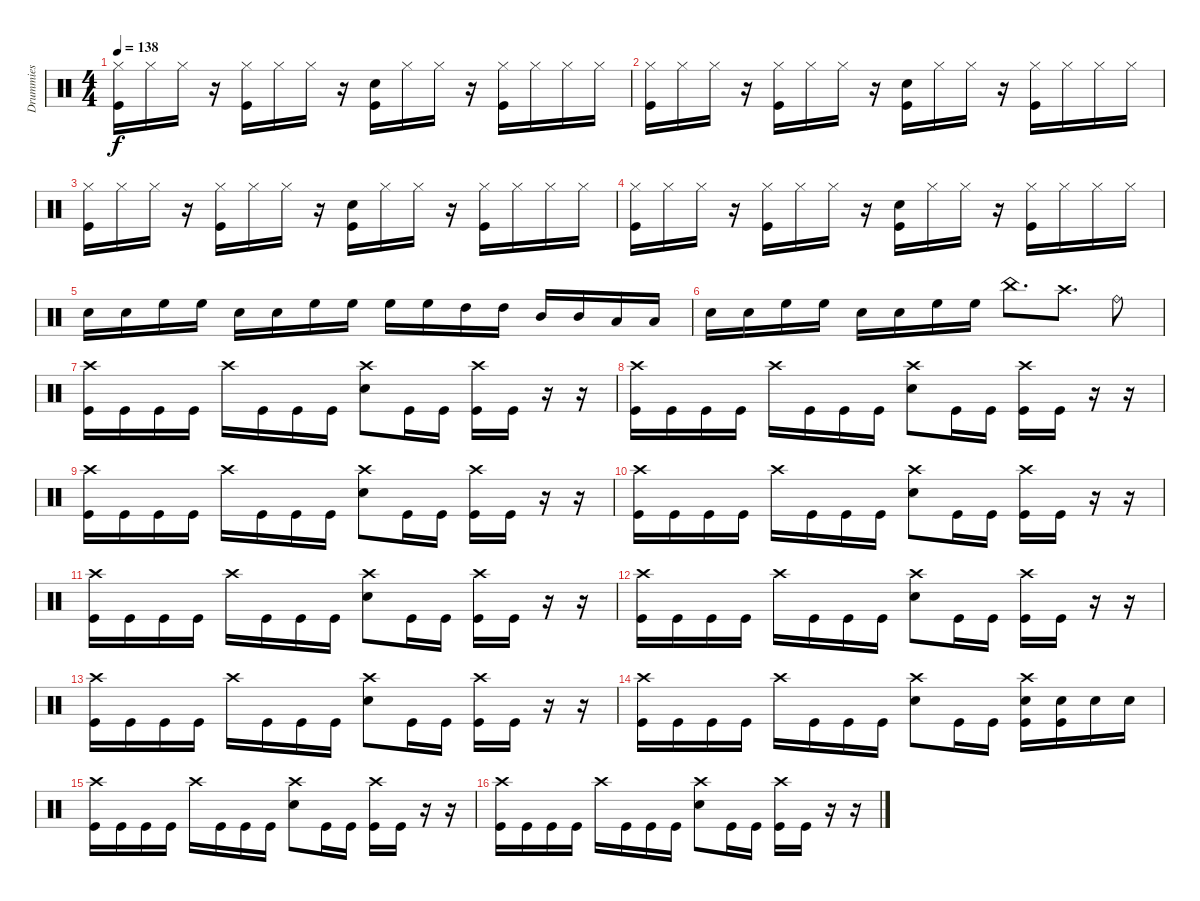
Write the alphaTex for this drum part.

\track ("Drummies" "Drummies") {instrument percussion}
\staff {score}
\articulation defaults
\ts (4 4)
\tempo 138
\clef neutral
\ks c
("Hi-Hat (closed)" "Kick (hit)").16{dy f} "Hi-Hat (closed)".16 "Hi-Hat (closed)".16 r.16 ("Hi-Hat (closed)" "Kick (hit)").16 "Hi-Hat (closed)".16 "Hi-Hat (closed)".16 r.16 ("Electric Snare (hit)" "Kick (hit)").16 "Hi-Hat (closed)".16 "Hi-Hat (closed)".16 r.16 ("Hi-Hat (closed)" "Kick (hit)").16 "Hi-Hat (closed)".16 "Hi-Hat (closed)".16 "Hi-Hat (closed)".16 |
("Hi-Hat (closed)" "Kick (hit)").16 "Hi-Hat (closed)".16 "Hi-Hat (closed)".16 r.16 ("Hi-Hat (closed)" "Kick (hit)").16 "Hi-Hat (closed)".16 "Hi-Hat (closed)".16 r.16 ("Electric Snare (hit)" "Kick (hit)").16 "Hi-Hat (closed)".16 "Hi-Hat (closed)".16 r.16 ("Hi-Hat (closed)" "Kick (hit)").16 "Hi-Hat (closed)".16 "Hi-Hat (closed)".16 "Hi-Hat (closed)".16 |
("Hi-Hat (closed)" "Kick (hit)").16 "Hi-Hat (closed)".16 "Hi-Hat (closed)".16 r.16 ("Hi-Hat (closed)" "Kick (hit)").16 "Hi-Hat (closed)".16 "Hi-Hat (closed)".16 r.16 ("Electric Snare (hit)" "Kick (hit)").16 "Hi-Hat (closed)".16 "Hi-Hat (closed)".16 r.16 ("Hi-Hat (closed)" "Kick (hit)").16 "Hi-Hat (closed)".16 "Hi-Hat (closed)".16 "Hi-Hat (closed)".16 |
("Hi-Hat (closed)" "Kick (hit)").16 "Hi-Hat (closed)".16 "Hi-Hat (closed)".16 r.16 ("Hi-Hat (closed)" "Kick (hit)").16 "Hi-Hat (closed)".16 "Hi-Hat (closed)".16 r.16 ("Electric Snare (hit)" "Kick (hit)").16 "Hi-Hat (closed)".16 "Hi-Hat (closed)".16 r.16 ("Hi-Hat (closed)" "Kick (hit)").16 "Hi-Hat (closed)".16 "Hi-Hat (closed)".16 "Hi-Hat (closed)".16 |
"Electric Snare (hit)".16 "Electric Snare (hit)".16 "High Floor Tom (hit)".16 "High Floor Tom (hit)".16 "Electric Snare (hit)".16 "Electric Snare (hit)".16 "High Floor Tom (hit)".16 "High Floor Tom (hit)".16 "High Floor Tom (hit)".16 "High Floor Tom (hit)".16 "High Tom (hit)".16 "High Tom (hit)".16 "Mid Tom (hit)".16 "Mid Tom (hit)".16 "Low Tom (hit)".16 "Low Tom (hit)".16 |
"Electric Snare (hit)".16 "Electric Snare (hit)".16 "High Floor Tom (hit)".16 "High Floor Tom (hit)".16 "Electric Snare (hit)".16 "Electric Snare (hit)".16 "High Floor Tom (hit)".16 "High Floor Tom (hit)".16 "China (hit)".8{d} "Crash high (hit)".8{d} "Ride (bell)".8 |
("Crash high (hit)" "Kick (hit)").16 "Kick (hit)".16 "Kick (hit)".16 "Kick (hit)".16 "Crash high (hit)".16 "Kick (hit)".16 "Kick (hit)".16 "Kick (hit)".16 ("Crash high (hit)" "Electric Snare (hit)").8 "Kick (hit)".16 "Kick (hit)".16 ("Crash high (hit)" "Kick (hit)").16 "Kick (hit)".16 r.16 r.16 |
("Crash high (hit)" "Kick (hit)").16 "Kick (hit)".16 "Kick (hit)".16 "Kick (hit)".16 "Crash high (hit)".16 "Kick (hit)".16 "Kick (hit)".16 "Kick (hit)".16 ("Crash high (hit)" "Electric Snare (hit)").8 "Kick (hit)".16 "Kick (hit)".16 ("Crash high (hit)" "Kick (hit)").16 "Kick (hit)".16 r.16 r.16 |
("Crash high (hit)" "Kick (hit)").16 "Kick (hit)".16 "Kick (hit)".16 "Kick (hit)".16 "Crash high (hit)".16 "Kick (hit)".16 "Kick (hit)".16 "Kick (hit)".16 ("Crash high (hit)" "Electric Snare (hit)").8 "Kick (hit)".16 "Kick (hit)".16 ("Crash high (hit)" "Kick (hit)").16 "Kick (hit)".16 r.16 r.16 |
("Crash high (hit)" "Kick (hit)").16 "Kick (hit)".16 "Kick (hit)".16 "Kick (hit)".16 "Crash high (hit)".16 "Kick (hit)".16 "Kick (hit)".16 "Kick (hit)".16 ("Crash high (hit)" "Electric Snare (hit)").8 "Kick (hit)".16 "Kick (hit)".16 ("Crash high (hit)" "Kick (hit)").16 "Kick (hit)".16 r.16 r.16 |
("Crash high (hit)" "Kick (hit)").16 "Kick (hit)".16 "Kick (hit)".16 "Kick (hit)".16 "Crash high (hit)".16 "Kick (hit)".16 "Kick (hit)".16 "Kick (hit)".16 ("Crash high (hit)" "Electric Snare (hit)").8 "Kick (hit)".16 "Kick (hit)".16 ("Crash high (hit)" "Kick (hit)").16 "Kick (hit)".16 r.16 r.16 |
("Crash high (hit)" "Kick (hit)").16 "Kick (hit)".16 "Kick (hit)".16 "Kick (hit)".16 "Crash high (hit)".16 "Kick (hit)".16 "Kick (hit)".16 "Kick (hit)".16 ("Crash high (hit)" "Electric Snare (hit)").8 "Kick (hit)".16 "Kick (hit)".16 ("Crash high (hit)" "Kick (hit)").16 "Kick (hit)".16 r.16 r.16 |
("Crash high (hit)" "Kick (hit)").16 "Kick (hit)".16 "Kick (hit)".16 "Kick (hit)".16 "Crash high (hit)".16 "Kick (hit)".16 "Kick (hit)".16 "Kick (hit)".16 ("Crash high (hit)" "Electric Snare (hit)").8 "Kick (hit)".16 "Kick (hit)".16 ("Crash high (hit)" "Kick (hit)").16 "Kick (hit)".16 r.16 r.16 |
("Crash high (hit)" "Kick (hit)").16 "Kick (hit)".16 "Kick (hit)".16 "Kick (hit)".16 "Crash high (hit)".16 "Kick (hit)".16 "Kick (hit)".16 "Kick (hit)".16 ("Crash high (hit)" "Electric Snare (hit)").8 "Kick (hit)".16 "Kick (hit)".16 ("Crash high (hit)" "Electric Snare (hit)" "Kick (hit)").16 ("Electric Snare (hit)" "Kick (hit)").16 "Electric Snare (hit)".16 "Electric Snare (hit)".16 |
("Crash high (hit)" "Kick (hit)").16 "Kick (hit)".16 "Kick (hit)".16 "Kick (hit)".16 "Crash high (hit)".16 "Kick (hit)".16 "Kick (hit)".16 "Kick (hit)".16 ("Crash high (hit)" "Electric Snare (hit)").8 "Kick (hit)".16 "Kick (hit)".16 ("Crash high (hit)" "Kick (hit)").16 "Kick (hit)".16 r.16 r.16 |
("Crash high (hit)" "Kick (hit)").16 "Kick (hit)".16 "Kick (hit)".16 "Kick (hit)".16 "Crash high (hit)".16 "Kick (hit)".16 "Kick (hit)".16 "Kick (hit)".16 ("Crash high (hit)" "Electric Snare (hit)").8 "Kick (hit)".16 "Kick (hit)".16 ("Crash high (hit)" "Kick (hit)").16 "Kick (hit)".16 r.16 r.16
